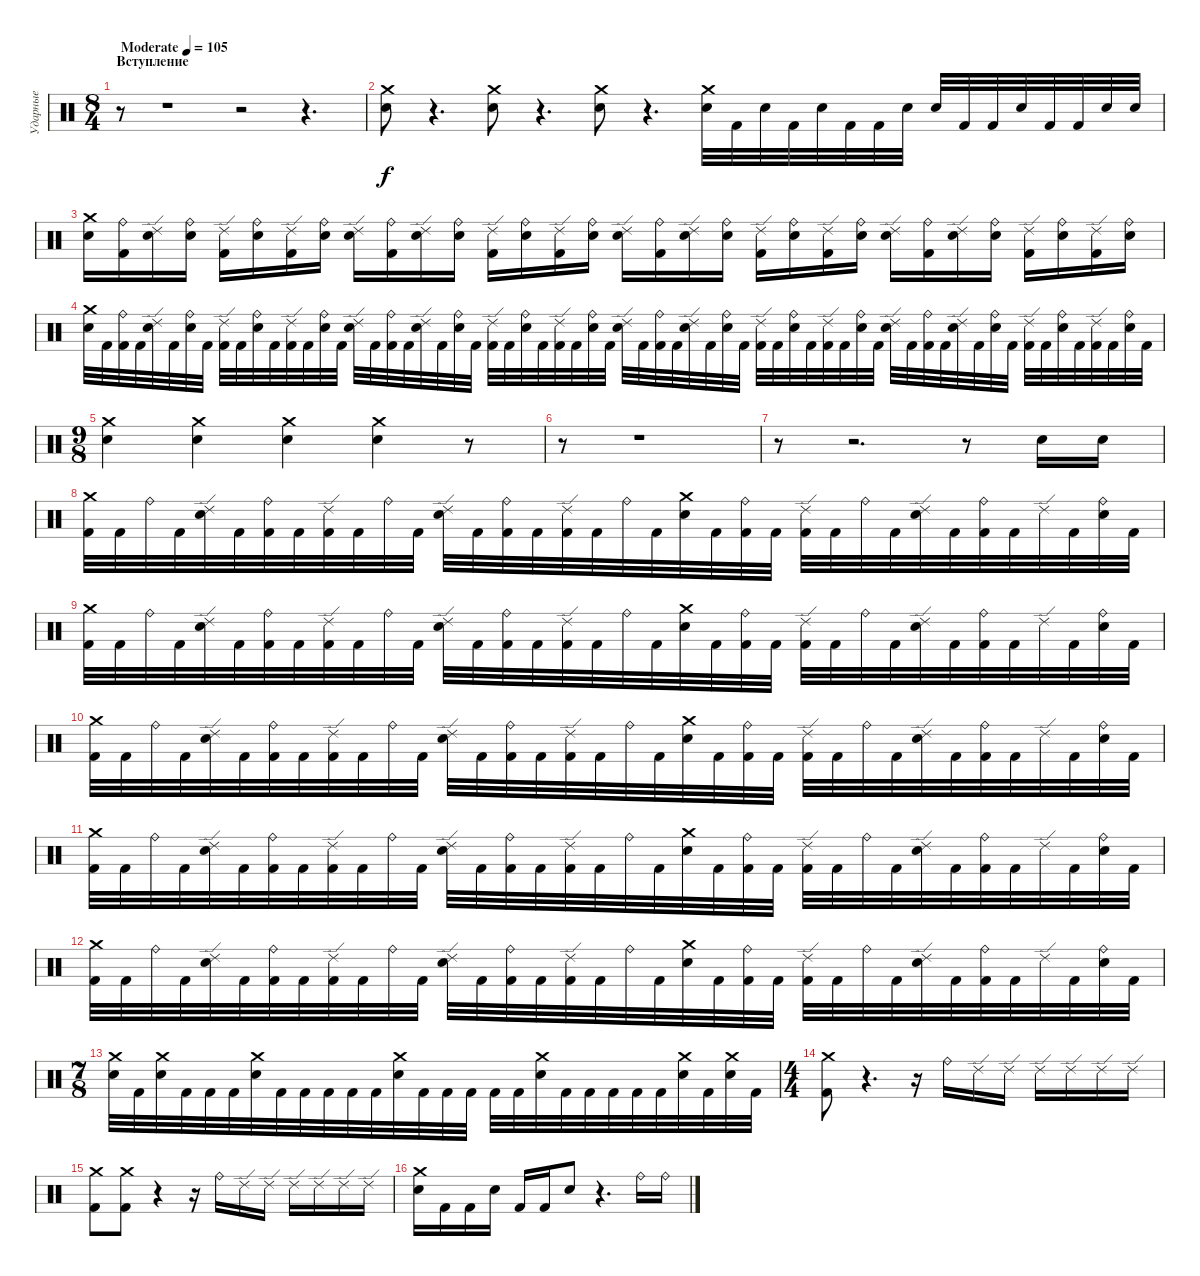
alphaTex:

\track ("Ударные" "Ударные") {instrument percussion}
\staff {score}
\articulation defaults
\ts (8 4)
\section ("" "Вступление")
\tempo (105 "Moderate")
\clef neutral
\ks c
r.8{dy f} r.1 r.2 r.4{d} |
("Crash medium (hit)" "Electric Snare (hit)").8 r.4{d} ("Electric Snare (hit)" "Crash medium (hit)").8 r.4{d} ("Electric Snare (hit)" "Crash medium (hit)").8 r.4{d} ("Electric Snare (hit)" "Crash medium (hit)").32 "Kick (hit) 2".32 "Electric Snare (hit)".32 "Kick (hit) 2".32 "Electric Snare (hit)".32 "Kick (hit) 2".32 "Kick (hit) 2".32 "Electric Snare (hit)".32 "Electric Snare (hit)".32 "Kick (hit) 2".32 "Kick (hit) 2".32 "Electric Snare (hit)".32 "Kick (hit) 2".32 "Kick (hit) 2".32 "Electric Snare (hit)".32 "Electric Snare (hit)".32 |
("Crash medium (hit)" "Electric Snare (hit)").16 ("Ride (bell)" "Kick (hit) 2").16 ("Ride (edge) 2" "Electric Snare (hit)").16 ("Ride (bell)" "Electric Snare (hit)").16 ("Ride (edge) 2" "Kick (hit) 2").16 ("Ride (bell)" "Electric Snare (hit)").16 ("Ride (edge) 2" "Kick (hit) 2").16 ("Ride (bell)" "Electric Snare (hit)").16 ("Ride (edge) 2" "Electric Snare (hit)").16 ("Ride (bell)" "Kick (hit) 2").16 ("Ride (edge) 2" "Electric Snare (hit)").16 ("Ride (bell)" "Electric Snare (hit)").16 ("Ride (edge) 2" "Kick (hit) 2").16 ("Ride (bell)" "Electric Snare (hit)").16 ("Ride (edge) 2" "Kick (hit) 2").16 ("Ride (bell)" "Electric Snare (hit)").16 ("Ride (edge) 2" "Electric Snare (hit)").16 ("Ride (bell)" "Kick (hit) 2").16 ("Ride (edge) 2" "Electric Snare (hit)").16 ("Ride (bell)" "Electric Snare (hit)").16 ("Ride (edge) 2" "Kick (hit) 2").16 ("Ride (bell)" "Electric Snare (hit)").16 ("Ride (edge) 2" "Kick (hit) 2").16 ("Ride (bell)" "Electric Snare (hit)").16 ("Ride (edge) 2" "Electric Snare (hit)").16 ("Ride (bell)" "Kick (hit) 2").16 ("Ride (edge) 2" "Electric Snare (hit)").16 ("Ride (bell)" "Electric Snare (hit)").16 ("Ride (edge) 2" "Kick (hit) 2").16 ("Ride (bell)" "Electric Snare (hit)").16 ("Ride (edge) 2" "Kick (hit) 2").16 ("Ride (bell)" "Electric Snare (hit)").16 |
("Crash medium (hit)" "Electric Snare (hit)").32 "Kick (hit) 2".32 ("Ride (bell)" "Kick (hit) 2").32 "Kick (hit) 2".32 ("Ride (edge) 2" "Electric Snare (hit)").32 "Kick (hit) 2".32 ("Ride (bell)" "Electric Snare (hit)").32 "Kick (hit) 2".32 ("Ride (edge) 2" "Kick (hit) 2").32 "Kick (hit) 2".32 ("Ride (bell)" "Electric Snare (hit)").32 "Kick (hit) 2".32 ("Ride (edge) 2" "Kick (hit) 2").32 "Kick (hit) 2".32 ("Ride (bell)" "Electric Snare (hit)").32 "Kick (hit) 2".32 ("Ride (edge) 2" "Electric Snare (hit)").32 "Kick (hit) 2".32 ("Ride (bell)" "Kick (hit) 2").32 "Kick (hit) 2".32 ("Ride (edge) 2" "Electric Snare (hit)").32 "Kick (hit) 2".32 ("Ride (bell)" "Electric Snare (hit)").32 "Kick (hit) 2".32 ("Ride (edge) 2" "Kick (hit) 2").32 "Kick (hit) 2".32 ("Ride (bell)" "Electric Snare (hit)").32 "Kick (hit) 2".32 ("Ride (edge) 2" "Kick (hit) 2").32 "Kick (hit) 2".32 ("Ride (bell)" "Electric Snare (hit)").32 "Kick (hit) 2".32 ("Ride (edge) 2" "Electric Snare (hit)").32 "Kick (hit) 2".32 ("Ride (bell)" "Kick (hit) 2").32 "Kick (hit) 2".32 ("Ride (edge) 2" "Electric Snare (hit)").32 "Kick (hit) 2".32 ("Ride (bell)" "Electric Snare (hit)").32 "Kick (hit) 2".32 ("Ride (edge) 2" "Kick (hit) 2").32 "Kick (hit) 2".32 ("Ride (bell)" "Electric Snare (hit)").32 "Kick (hit) 2".32 ("Ride (edge) 2" "Kick (hit) 2").32 "Kick (hit) 2".32 ("Ride (bell)" "Electric Snare (hit)").32 "Kick (hit) 2".32 ("Ride (edge) 2" "Electric Snare (hit)").32 "Kick (hit) 2".32 ("Ride (bell)" "Kick (hit) 2").32 "Kick (hit) 2".32 ("Ride (edge) 2" "Electric Snare (hit)").32 "Kick (hit) 2".32 ("Ride (bell)" "Electric Snare (hit)").32 "Kick (hit) 2".32 ("Ride (edge) 2" "Kick (hit) 2").32 "Kick (hit) 2".32 ("Ride (bell)" "Electric Snare (hit)").32 "Kick (hit) 2".32 ("Ride (edge) 2" "Kick (hit) 2").32 "Kick (hit) 2".32 ("Ride (bell)" "Electric Snare (hit)").32 "Kick (hit) 2".32 |
\ts (9 8)
("Electric Snare (hit)" "Crash medium (hit)").4 ("Electric Snare (hit)" "Crash medium (hit)").4 ("Electric Snare (hit)" "Crash medium (hit)").4 ("Electric Snare (hit)" "Crash medium (hit)").4 r.8 |
r.8 r.1 |
r.8 r.2{d} r.8 "Electric Snare (hit)".16 "Electric Snare (hit)".16 |
("Kick (hit) 2" "Crash medium (hit)").32 "Kick (hit) 2".32 "Ride (bell)".32 "Kick (hit) 2".32 ("Ride (edge) 2" "Electric Snare (hit)").32 "Kick (hit) 2".32 ("Ride (bell)" "Kick (hit) 2").32 "Kick (hit) 2".32 ("Ride (edge) 2" "Kick (hit) 2").32 "Kick (hit) 2".32 "Ride (bell)".32 "Kick (hit) 2".32 ("Ride (edge) 2" "Electric Snare (hit)").32 "Kick (hit) 2".32 ("Ride (bell)" "Kick (hit) 2").32 "Kick (hit) 2".32 ("Ride (edge) 2" "Kick (hit) 2").32 "Kick (hit) 2".32 "Ride (bell)".32 "Kick (hit) 2".32 ("Crash medium (hit)" "Electric Snare (hit)").32 "Kick (hit) 2".32 ("Ride (bell)" "Kick (hit) 2").32 "Kick (hit) 2".32 ("Ride (edge) 2" "Kick (hit) 2").32 "Kick (hit) 2".32 "Ride (bell)".32 "Kick (hit) 2".32 ("Ride (edge) 2" "Electric Snare (hit)").32 "Kick (hit) 2".32 ("Ride (bell)" "Kick (hit) 2").32 "Kick (hit) 2".32 "Ride (edge) 2".32 "Kick (hit) 2".32 ("Electric Snare (hit)" "Ride (bell)").32 "Kick (hit) 2".32 |
("Kick (hit) 2" "Crash medium (hit)").32 "Kick (hit) 2".32 "Ride (bell)".32 "Kick (hit) 2".32 ("Ride (edge) 2" "Electric Snare (hit)").32 "Kick (hit) 2".32 ("Ride (bell)" "Kick (hit) 2").32 "Kick (hit) 2".32 ("Ride (edge) 2" "Kick (hit) 2").32 "Kick (hit) 2".32 "Ride (bell)".32 "Kick (hit) 2".32 ("Ride (edge) 2" "Electric Snare (hit)").32 "Kick (hit) 2".32 ("Ride (bell)" "Kick (hit) 2").32 "Kick (hit) 2".32 ("Ride (edge) 2" "Kick (hit) 2").32 "Kick (hit) 2".32 "Ride (bell)".32 "Kick (hit) 2".32 ("Crash medium (hit)" "Electric Snare (hit)").32 "Kick (hit) 2".32 ("Ride (bell)" "Kick (hit) 2").32 "Kick (hit) 2".32 ("Ride (edge) 2" "Kick (hit) 2").32 "Kick (hit) 2".32 "Ride (bell)".32 "Kick (hit) 2".32 ("Ride (edge) 2" "Electric Snare (hit)").32 "Kick (hit) 2".32 ("Ride (bell)" "Kick (hit) 2").32 "Kick (hit) 2".32 "Ride (edge) 2".32 "Kick (hit) 2".32 ("Electric Snare (hit)" "Ride (bell)").32 "Kick (hit) 2".32 |
("Kick (hit) 2" "Crash medium (hit)").32 "Kick (hit) 2".32 "Ride (bell)".32 "Kick (hit) 2".32 ("Ride (edge) 2" "Electric Snare (hit)").32 "Kick (hit) 2".32 ("Ride (bell)" "Kick (hit) 2").32 "Kick (hit) 2".32 ("Ride (edge) 2" "Kick (hit) 2").32 "Kick (hit) 2".32 "Ride (bell)".32 "Kick (hit) 2".32 ("Ride (edge) 2" "Electric Snare (hit)").32 "Kick (hit) 2".32 ("Ride (bell)" "Kick (hit) 2").32 "Kick (hit) 2".32 ("Ride (edge) 2" "Kick (hit) 2").32 "Kick (hit) 2".32 "Ride (bell)".32 "Kick (hit) 2".32 ("Crash medium (hit)" "Electric Snare (hit)").32 "Kick (hit) 2".32 ("Ride (bell)" "Kick (hit) 2").32 "Kick (hit) 2".32 ("Ride (edge) 2" "Kick (hit) 2").32 "Kick (hit) 2".32 "Ride (bell)".32 "Kick (hit) 2".32 ("Ride (edge) 2" "Electric Snare (hit)").32 "Kick (hit) 2".32 ("Ride (bell)" "Kick (hit) 2").32 "Kick (hit) 2".32 "Ride (edge) 2".32 "Kick (hit) 2".32 ("Electric Snare (hit)" "Ride (bell)").32 "Kick (hit) 2".32 |
("Kick (hit) 2" "Crash medium (hit)").32 "Kick (hit) 2".32 "Ride (bell)".32 "Kick (hit) 2".32 ("Ride (edge) 2" "Electric Snare (hit)").32 "Kick (hit) 2".32 ("Ride (bell)" "Kick (hit) 2").32 "Kick (hit) 2".32 ("Ride (edge) 2" "Kick (hit) 2").32 "Kick (hit) 2".32 "Ride (bell)".32 "Kick (hit) 2".32 ("Ride (edge) 2" "Electric Snare (hit)").32 "Kick (hit) 2".32 ("Ride (bell)" "Kick (hit) 2").32 "Kick (hit) 2".32 ("Ride (edge) 2" "Kick (hit) 2").32 "Kick (hit) 2".32 "Ride (bell)".32 "Kick (hit) 2".32 ("Crash medium (hit)" "Electric Snare (hit)").32 "Kick (hit) 2".32 ("Ride (bell)" "Kick (hit) 2").32 "Kick (hit) 2".32 ("Ride (edge) 2" "Kick (hit) 2").32 "Kick (hit) 2".32 "Ride (bell)".32 "Kick (hit) 2".32 ("Ride (edge) 2" "Electric Snare (hit)").32 "Kick (hit) 2".32 ("Ride (bell)" "Kick (hit) 2").32 "Kick (hit) 2".32 "Ride (edge) 2".32 "Kick (hit) 2".32 ("Electric Snare (hit)" "Ride (bell)").32 "Kick (hit) 2".32 |
("Kick (hit) 2" "Crash medium (hit)").32 "Kick (hit) 2".32 "Ride (bell)".32 "Kick (hit) 2".32 ("Ride (edge) 2" "Electric Snare (hit)").32 "Kick (hit) 2".32 ("Ride (bell)" "Kick (hit) 2").32 "Kick (hit) 2".32 ("Ride (edge) 2" "Kick (hit) 2").32 "Kick (hit) 2".32 "Ride (bell)".32 "Kick (hit) 2".32 ("Ride (edge) 2" "Electric Snare (hit)").32 "Kick (hit) 2".32 ("Ride (bell)" "Kick (hit) 2").32 "Kick (hit) 2".32 ("Ride (edge) 2" "Kick (hit) 2").32 "Kick (hit) 2".32 "Ride (bell)".32 "Kick (hit) 2".32 ("Electric Snare (hit)" "Crash medium (hit)").32 "Kick (hit) 2".32 ("Ride (bell)" "Kick (hit) 2").32 "Kick (hit) 2".32 ("Ride (edge) 2" "Kick (hit) 2").32 "Kick (hit) 2".32 "Ride (bell)".32 "Kick (hit) 2".32 ("Ride (edge) 2" "Electric Snare (hit)").32 "Kick (hit) 2".32 ("Ride (bell)" "Kick (hit) 2").32 "Kick (hit) 2".32 "Ride (edge) 2".32 "Kick (hit) 2".32 ("Electric Snare (hit)" "Ride (bell)").32 "Kick (hit) 2".32 |
\ts (7 8)
("Crash medium (hit)" "Electric Snare (hit)").32 "Kick (hit) 2".32 ("Crash medium (hit)" "Electric Snare (hit)").32 "Kick (hit) 2".32 "Kick (hit) 2".32 "Kick (hit) 2".32 ("Crash medium (hit)" "Electric Snare (hit)").32 "Kick (hit) 2".32 "Kick (hit) 2".32 "Kick (hit) 2".32 "Kick (hit) 2".32 "Kick (hit) 2".32 ("Crash medium (hit)" "Electric Snare (hit)").32 "Kick (hit) 2".32 "Kick (hit) 2".32 "Kick (hit) 2".32 "Kick (hit) 2".32 "Kick (hit) 2".32 ("Crash medium (hit)" "Electric Snare (hit)").32 "Kick (hit) 2".32 "Kick (hit) 2".32 "Kick (hit) 2".32 "Kick (hit) 2".32 "Kick (hit) 2".32 ("Crash medium (hit)" "Electric Snare (hit)").32 "Kick (hit) 2".32 ("Crash medium (hit)" "Electric Snare (hit)").32 "Kick (hit) 2".32 |
\ts (4 4)
("Crash medium (hit)" "Kick (hit) 2").8 r.4{d} r.16 "Ride (bell)".16 "Ride (edge) 2".16 "Ride (edge) 2".16 "Ride (edge) 2".16 "Ride (edge) 2".16 "Ride (edge) 2".16 "Ride (edge) 2".16 |
("Crash medium (hit)" "Kick (hit) 2").8 ("Crash medium (hit)" "Kick (hit) 2").8 r.4 r.16 "Ride (bell)".16 "Ride (edge) 2".16 "Ride (edge) 2".16 "Ride (edge) 2".16 "Ride (edge) 2".16 "Ride (edge) 2".16 "Ride (edge) 2".16 |
("Crash medium (hit)" "Electric Snare (hit)").16 "Kick (hit) 2".16 "Kick (hit) 2".16 "Electric Snare (hit)".16 "Kick (hit) 2".16 "Kick (hit) 2".16 "Electric Snare (hit)".8 r.4{d} "Ride (bell)".16 "Ride (bell)".16
